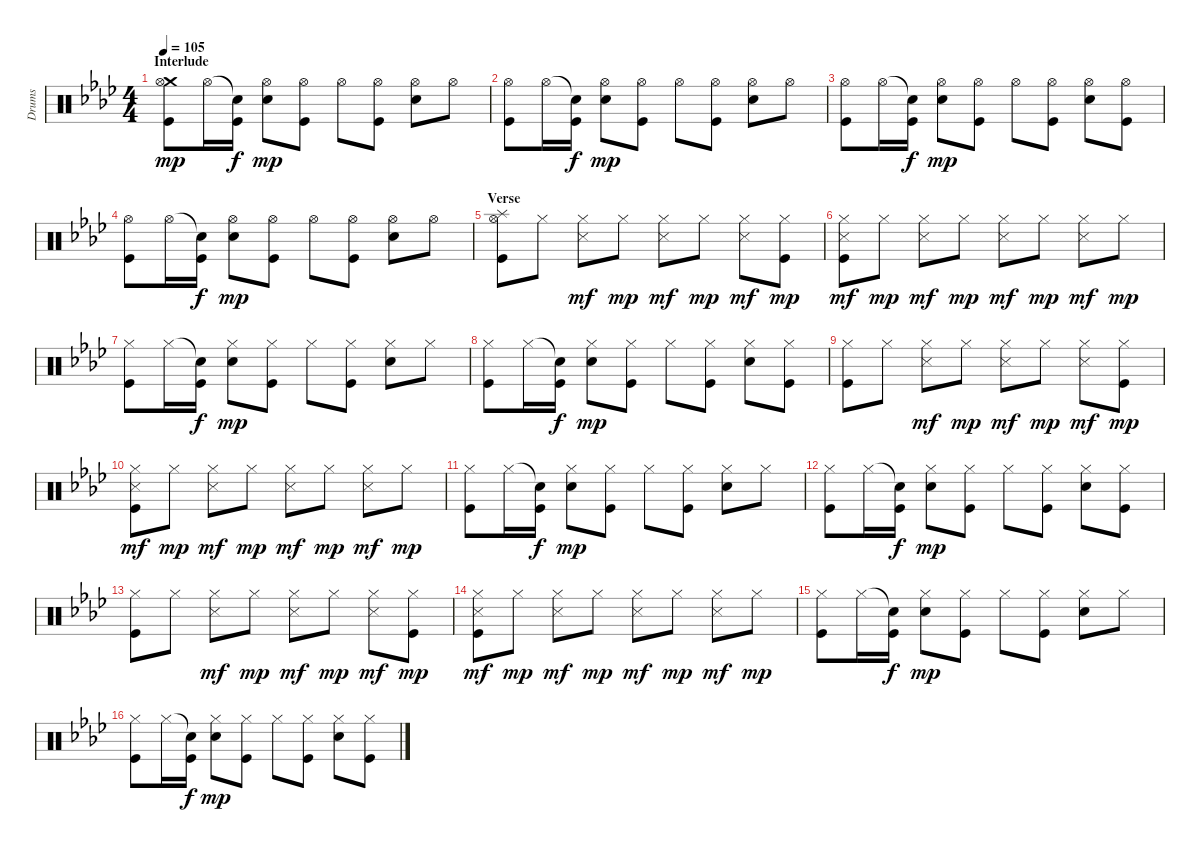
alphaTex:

\track ("Drums" "Drums") {instrument percussion}
\staff {score}
\articulation defaults
\ts (4 4)
\section ("" "Interlude")
\tempo 105
\clef neutral
\ks ab
("Crash medium (hit)" "Hi-Hat (open)" "Kick (hit)").8{dy mp} "Hi-Hat (open)".16 ("Snare (hit)"{t} "Kick (hit)").16{dy f} ("Hi-Hat (open)" "Electric Snare (hit)").8{dy mp} ("Hi-Hat (open)" "Kick (hit)").8 "Hi-Hat (open)".8 ("Hi-Hat (open)" "Kick (hit)").8 ("Hi-Hat (open)" "Electric Snare (hit)").8 "Hi-Hat (open)".8 |
("Hi-Hat (open)" "Kick (hit)").8 "Hi-Hat (open)".16 ("Snare (hit)"{t} "Kick (hit)").16{dy f} ("Hi-Hat (open)" "Electric Snare (hit)").8{dy mp} ("Hi-Hat (open)" "Kick (hit)").8 "Hi-Hat (open)".8 ("Hi-Hat (open)" "Kick (hit)").8 ("Hi-Hat (open)" "Electric Snare (hit)").8 "Hi-Hat (open)".8 |
("Hi-Hat (open)" "Kick (hit)").8 "Hi-Hat (open)".16 ("Snare (hit)"{t} "Kick (hit)").16{dy f} ("Hi-Hat (open)" "Electric Snare (hit)").8{dy mp} ("Hi-Hat (open)" "Kick (hit)").8 "Hi-Hat (open)".8 ("Hi-Hat (open)" "Kick (hit)").8 ("Hi-Hat (open)" "Electric Snare (hit)").8 ("Hi-Hat (open)" "Kick (hit)").8 |
("Hi-Hat (open)" "Kick (hit)").8 "Hi-Hat (open)".16 ("Snare (hit)"{t} "Kick (hit)").16{dy f} ("Hi-Hat (open)" "Electric Snare (hit)").8{dy mp} ("Hi-Hat (open)" "Kick (hit)").8 "Hi-Hat (open)".8 ("Hi-Hat (open)" "Kick (hit)").8 ("Hi-Hat (open)" "Electric Snare (hit)").8 "Hi-Hat (open)".8 |
\section ("" "Verse")
("Splash (hit)" "Hi-Hat (open)" "Kick (hit)").8 "Hi-Hat (closed)".8 ("Hi-Hat (closed)" "Metronome (hit)").8{dy mf} "Hi-Hat (closed)".8{dy mp} ("Hi-Hat (closed)" "Metronome (hit)").8{dy mf} "Hi-Hat (closed)".8{dy mp} ("Hi-Hat (closed)" "Metronome (hit)").8{dy mf} ("Hi-Hat (closed)" "Kick (hit)").8{dy mp} |
("Hi-Hat (closed)" "Metronome (hit)" "Kick (hit)").8{dy mf} "Hi-Hat (closed)".8{dy mp} ("Hi-Hat (closed)" "Metronome (hit)").8{dy mf} "Hi-Hat (closed)".8{dy mp} ("Hi-Hat (closed)" "Metronome (hit)").8{dy mf} "Hi-Hat (closed)".8{dy mp} ("Hi-Hat (closed)" "Metronome (hit)").8{dy mf} "Hi-Hat (closed)".8{dy mp} |
("Hi-Hat (closed)" "Kick (hit)").8 "Hi-Hat (closed)".16 ("Snare (hit)"{t} "Kick (hit)").16{dy f} ("Hi-Hat (closed)" "Electric Snare (hit)").8{dy mp} ("Hi-Hat (closed)" "Kick (hit)").8 "Hi-Hat (closed)".8 ("Hi-Hat (closed)" "Kick (hit)").8 ("Hi-Hat (closed)" "Electric Snare (hit)").8 "Hi-Hat (closed)".8 |
("Hi-Hat (closed)" "Kick (hit)").8 "Hi-Hat (closed)".16 ("Snare (hit)"{t} "Kick (hit)").16{dy f} ("Hi-Hat (closed)" "Electric Snare (hit)").8{dy mp} ("Hi-Hat (closed)" "Kick (hit)").8 "Hi-Hat (closed)".8 ("Hi-Hat (closed)" "Kick (hit)").8 ("Hi-Hat (closed)" "Electric Snare (hit)").8 ("Hi-Hat (closed)" "Kick (hit)").8 |
("Hi-Hat (closed)" "Kick (hit)").8 "Hi-Hat (closed)".8 ("Hi-Hat (closed)" "Metronome (hit)").8{dy mf} "Hi-Hat (closed)".8{dy mp} ("Hi-Hat (closed)" "Metronome (hit)").8{dy mf} "Hi-Hat (closed)".8{dy mp} ("Hi-Hat (closed)" "Metronome (hit)").8{dy mf} ("Hi-Hat (closed)" "Kick (hit)").8{dy mp} |
("Hi-Hat (closed)" "Metronome (hit)" "Kick (hit)").8{dy mf} "Hi-Hat (closed)".8{dy mp} ("Hi-Hat (closed)" "Metronome (hit)").8{dy mf} "Hi-Hat (closed)".8{dy mp} ("Hi-Hat (closed)" "Metronome (hit)").8{dy mf} "Hi-Hat (closed)".8{dy mp} ("Hi-Hat (closed)" "Metronome (hit)").8{dy mf} "Hi-Hat (closed)".8{dy mp} |
("Hi-Hat (closed)" "Kick (hit)").8 "Hi-Hat (closed)".16 ("Snare (hit)"{t} "Kick (hit)").16{dy f} ("Hi-Hat (closed)" "Electric Snare (hit)").8{dy mp} ("Hi-Hat (closed)" "Kick (hit)").8 "Hi-Hat (closed)".8 ("Hi-Hat (closed)" "Kick (hit)").8 ("Hi-Hat (closed)" "Electric Snare (hit)").8 "Hi-Hat (closed)".8 |
("Hi-Hat (closed)" "Kick (hit)").8 "Hi-Hat (closed)".16 ("Snare (hit)"{t} "Kick (hit)").16{dy f} ("Hi-Hat (closed)" "Electric Snare (hit)").8{dy mp} ("Hi-Hat (closed)" "Kick (hit)").8 "Hi-Hat (closed)".8 ("Hi-Hat (closed)" "Kick (hit)").8 ("Hi-Hat (closed)" "Electric Snare (hit)").8 ("Hi-Hat (closed)" "Kick (hit)").8 |
("Hi-Hat (closed)" "Kick (hit)").8 "Hi-Hat (closed)".8 ("Hi-Hat (closed)" "Metronome (hit)").8{dy mf} "Hi-Hat (closed)".8{dy mp} ("Hi-Hat (closed)" "Metronome (hit)").8{dy mf} "Hi-Hat (closed)".8{dy mp} ("Hi-Hat (closed)" "Metronome (hit)").8{dy mf} ("Hi-Hat (closed)" "Kick (hit)").8{dy mp} |
("Hi-Hat (closed)" "Metronome (hit)" "Kick (hit)").8{dy mf} "Hi-Hat (closed)".8{dy mp} ("Hi-Hat (closed)" "Metronome (hit)").8{dy mf} "Hi-Hat (closed)".8{dy mp} ("Hi-Hat (closed)" "Metronome (hit)").8{dy mf} "Hi-Hat (closed)".8{dy mp} ("Hi-Hat (closed)" "Metronome (hit)").8{dy mf} "Hi-Hat (closed)".8{dy mp} |
("Hi-Hat (closed)" "Kick (hit)").8 "Hi-Hat (closed)".16 ("Snare (hit)"{t} "Kick (hit)").16{dy f} ("Hi-Hat (closed)" "Electric Snare (hit)").8{dy mp} ("Hi-Hat (closed)" "Kick (hit)").8 "Hi-Hat (closed)".8 ("Hi-Hat (closed)" "Kick (hit)").8 ("Hi-Hat (closed)" "Electric Snare (hit)").8 "Hi-Hat (closed)".8 |
("Hi-Hat (closed)" "Kick (hit)").8 "Hi-Hat (closed)".16 ("Snare (hit)"{t} "Kick (hit)").16{dy f} ("Hi-Hat (closed)" "Electric Snare (hit)").8{dy mp} ("Hi-Hat (closed)" "Kick (hit)").8 "Hi-Hat (closed)".8 ("Hi-Hat (closed)" "Kick (hit)").8 ("Hi-Hat (closed)" "Electric Snare (hit)").8 ("Hi-Hat (closed)" "Kick (hit)").8
